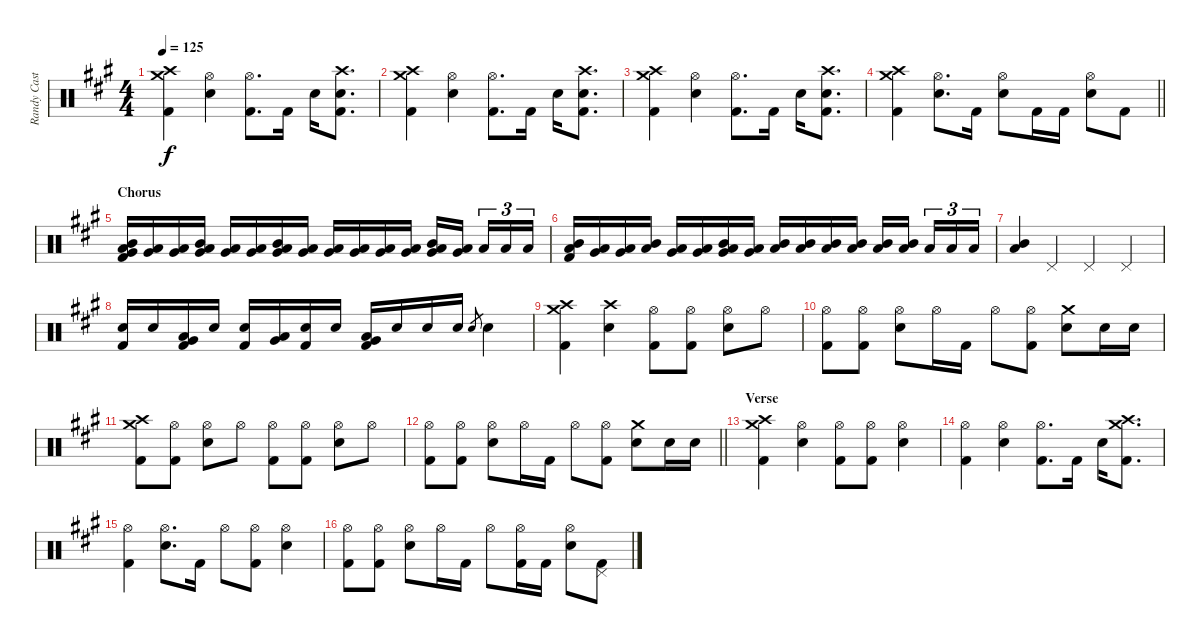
\track ("Randy Castillo - Drums" "Randy Cast") {instrument percussion}
\staff {score}
\articulation defaults
\ts (4 4)
\tempo 125
\clef neutral
\ks a
("Crash medium (hit)" "Crash high (hit)" "Kick (hit) 2").4{dy f} ("Hi-Hat (open)" "Snare (hit) 2").4 ("Hi-Hat (open)" "Kick (hit) 2").8{d} "Kick (hit) 2".16 "Snare (hit) 2".16 ("Snare (hit)" "Crash high (hit)" "Kick (hit) 2").8{d} |
("Crash medium (hit)" "Crash high (hit)" "Kick (hit) 2").4 ("Hi-Hat (open)" "Snare (hit) 2").4 ("Hi-Hat (open)" "Kick (hit) 2").8{d} "Kick (hit) 2".16 "Snare (hit) 2".16 ("Snare (hit)" "Crash high (hit)" "Kick (hit) 2").8{d} |
("Crash medium (hit)" "Crash high (hit)" "Kick (hit) 2").4 ("Hi-Hat (open)" "Snare (hit) 2").4 ("Hi-Hat (open)" "Kick (hit) 2").8{d} "Kick (hit) 2".16 "Snare (hit) 2".16 ("Snare (hit)" "Crash high (hit)" "Kick (hit) 2").8{d} |
\barLineRight lightlight
("Crash medium (hit)" "Crash high (hit)" "Kick (hit) 2").4 ("Hi-Hat (open)" "Snare (hit) 2").8{d} "Kick (hit) 2".16 ("Hi-Hat (open)" "Snare (hit) 2").8 "Kick (hit) 2".16 "Kick (hit) 2".16 ("Hi-Hat (open)" "Snare (hit) 2").8 "Kick (hit) 2".8 |
\section ("" "Chorus")
("Mid Tom (hit)" "Low Tom (hit)" "Very Low Tom (hit)" "Kick (hit) 2").16 ("Low Tom (hit)" "Very Low Tom (hit)").16 ("Low Tom (hit)" "Very Low Tom (hit)").16 ("Mid Tom (hit)" "Low Tom (hit)" "Very Low Tom (hit)").16 ("Low Tom (hit)" "Very Low Tom (hit)").16 ("Low Tom (hit)" "Very Low Tom (hit)").16 ("Mid Tom (hit)" "Low Tom (hit)" "Very Low Tom (hit)").16 ("Low Tom (hit)" "Very Low Tom (hit)").16 ("Low Tom (hit)" "Very Low Tom (hit)").16 ("Low Tom (hit)" "Very Low Tom (hit)").16 ("Low Tom (hit)" "Very Low Tom (hit)").16 ("Low Tom (hit)" "Very Low Tom (hit)").16 ("Mid Tom (hit)" "Low Tom (hit)" "Very Low Tom (hit)").16 ("Low Tom (hit)" "Very Low Tom (hit)").16{beam splitsecondary} "Low Tom (hit)".16{tu (3 2)} "Low Tom (hit)".16{tu (3 2)} "Low Tom (hit)".16{tu (3 2)} |
("Mid Tom (hit)" "Low Tom (hit)" "Kick (hit) 2").16 ("Low Tom (hit)" "Very Low Tom (hit)").16 ("Low Tom (hit)" "Very Low Tom (hit)").16 ("Mid Tom (hit)" "Low Tom (hit)").16 ("Low Tom (hit)" "Very Low Tom (hit)").16 ("Low Tom (hit)" "Very Low Tom (hit)").16 ("Mid Tom (hit)" "Low Tom (hit)" "Very Low Tom (hit)").16 ("Low Tom (hit)" "Very Low Tom (hit)").16 ("Mid Tom (hit)" "Low Tom (hit)").16 ("Mid Tom (hit)" "Low Tom (hit)").16 ("Mid Tom (hit)" "Low Tom (hit)").16 ("Mid Tom (hit)" "Low Tom (hit)").16 ("Mid Tom (hit)" "Low Tom (hit)").16 ("Mid Tom (hit)" "Low Tom (hit)").16{beam splitsecondary} "Low Tom (hit)".16{tu (3 2)} "Low Tom (hit)".16{tu (3 2)} "Low Tom (hit)".16{tu (3 2)} |
("Mid Tom (hit)" "Low Tom (hit)").4 "Pedal Hi-Hat (hit)".4 "Pedal Hi-Hat (hit)".4 "Pedal Hi-Hat (hit)".4 |
("Snare (hit) 2" "Kick (hit) 2").16 "Snare (hit) 2".16 ("Very Low Tom (hit)" "Low Tom (hit)" "Kick (hit) 2").16 "Snare (hit) 2".16 ("Snare (hit) 2" "Kick (hit) 2").16 ("Very Low Tom (hit)" "Low Tom (hit)").16 ("Snare (hit) 2" "Kick (hit) 2").16 "Snare (hit) 2".16 ("Very Low Tom (hit)" "Low Tom (hit)" "Kick (hit) 2").16 "Snare (hit) 2".16 "Snare (hit) 2".16 "Snare (hit) 2".16 "Snare (hit) 2".8{gr} "Snare (hit) 2".4 |
("Crash medium (hit)" "Crash high (hit)" "Kick (hit) 2").4 ("Crash high (hit)" "Snare (hit) 2").4 ("Hi-Hat (open)" "Kick (hit) 2").8 ("Hi-Hat (open)" "Kick (hit) 2").8 ("Hi-Hat (open)" "Snare (hit) 2").8 "Hi-Hat (open)".8 |
("Hi-Hat (open)" "Kick (hit) 2").8 ("Hi-Hat (open)" "Kick (hit) 2").8 ("Hi-Hat (open)" "Snare (hit) 2").8 "Hi-Hat (open)".16 "Kick (hit) 2".16 "Hi-Hat (open)".8 ("Hi-Hat (open)" "Kick (hit) 2").8 ("Crash medium (hit)" "Snare (hit) 2").8 "Snare (hit) 2".16 "Snare (hit) 2".16 |
("Crash medium (hit)" "Crash high (hit)" "Kick (hit) 2").8 ("Hi-Hat (open)" "Kick (hit) 2").8 ("Hi-Hat (open)" "Snare (hit) 2").8 "Hi-Hat (open)".8 ("Hi-Hat (open)" "Kick (hit) 2").8 ("Hi-Hat (open)" "Kick (hit) 2").8 ("Hi-Hat (open)" "Snare (hit) 2").8 "Hi-Hat (open)".8 |
\barLineRight lightlight
("Hi-Hat (open)" "Kick (hit) 2").8 ("Hi-Hat (open)" "Kick (hit) 2").8 ("Hi-Hat (open)" "Snare (hit) 2").8 "Hi-Hat (open)".16 "Kick (hit) 2".16 "Hi-Hat (open)".8 ("Hi-Hat (open)" "Kick (hit) 2").8 ("Crash medium (hit)" "Snare (hit) 2").8 "Snare (hit) 2".16 "Snare (hit) 2".16 |
\section ("" "Verse")
("Crash medium (hit)" "Crash high (hit)" "Kick (hit) 2").4 ("Hi-Hat (open)" "Snare (hit) 2").4 ("Hi-Hat (open)" "Kick (hit) 2").8 ("Hi-Hat (open)" "Kick (hit) 2").8 ("Hi-Hat (open)" "Snare (hit) 2").4 |
("Hi-Hat (open)" "Kick (hit) 2").4 ("Hi-Hat (open)" "Snare (hit) 2").4 ("Hi-Hat (open)" "Kick (hit) 2").8{d} "Kick (hit) 2".16 "Snare (hit) 2".16 ("Crash medium (hit)" "Crash high (hit)" "Kick (hit) 2").8{d} |
("Hi-Hat (open)" "Kick (hit) 2").4 ("Hi-Hat (open)" "Snare (hit) 2").8{d} "Kick (hit) 2".16 "Hi-Hat (open)".8 ("Hi-Hat (open)" "Kick (hit) 2").8 ("Hi-Hat (open)" "Snare (hit) 2").4 |
("Hi-Hat (open)" "Kick (hit) 2").8 ("Hi-Hat (open)" "Kick (hit) 2").8 ("Hi-Hat (open)" "Snare (hit) 2").8 "Hi-Hat (open)".16 "Kick (hit) 2".16 "Hi-Hat (open)".8 ("Hi-Hat (open)" "Kick (hit) 2").16 "Kick (hit) 2".16 ("Hi-Hat (open)" "Snare (hit) 2").8 ("Pedal Hi-Hat (hit)" "Kick (hit) 2").8
